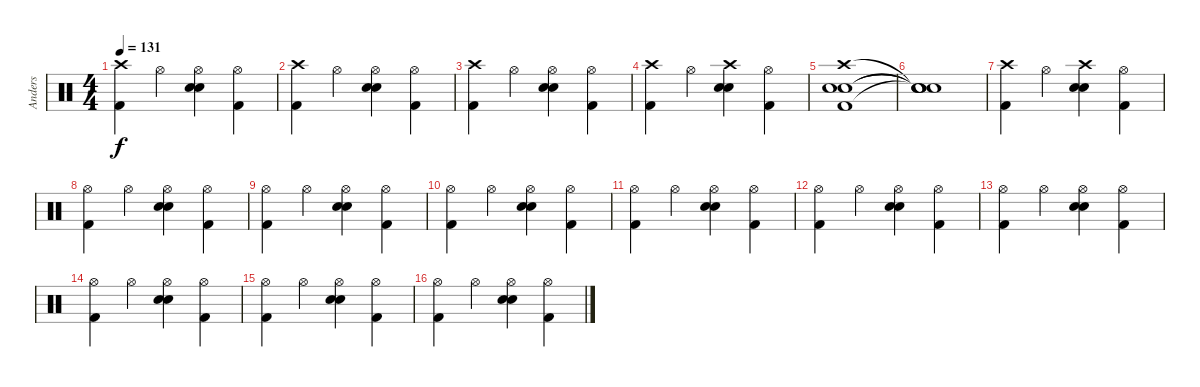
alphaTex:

\track ("Anders" "Anders") {instrument percussion}
\staff {score}
\articulation defaults
\ts (4 4)
\tempo 131
\clef neutral
\ks c
("Crash high (hit)" "Kick (hit) 2").4{dy f} "Hi-Hat (open)".4 ("Hi-Hat (open)" "Electric Snare (hit)" "Electric Snare (hit)").4 ("Hi-Hat (open)" "Kick (hit) 2").4 |
("Crash high (hit)" "Kick (hit) 2").4 "Hi-Hat (open)".4 ("Hi-Hat (open)" "Electric Snare (hit)" "Electric Snare (hit)").4 ("Hi-Hat (open)" "Kick (hit) 2").4 |
("Crash high (hit)" "Kick (hit) 2").4 "Hi-Hat (open)".4 ("Hi-Hat (open)" "Electric Snare (hit)" "Electric Snare (hit)").4 ("Hi-Hat (open)" "Kick (hit) 2").4 |
("Crash high (hit)" "Kick (hit) 2").4 "Hi-Hat (open)".4 ("Crash high (hit)" "Electric Snare (hit)" "Electric Snare (hit)").4 ("Hi-Hat (open)" "Kick (hit) 2").4 |
("Crash high (hit)" "Electric Snare (hit)" "Electric Snare (hit)" "Kick (hit) 2").1 |
("Snare (hit)"{t} "Snare (hit)"{t} "Snare (hit)"{t} "Snare (hit)"{t}).1 |
("Crash high (hit)" "Kick (hit) 2").4 "Hi-Hat (open)".4 ("Crash high (hit)" "Electric Snare (hit)" "Electric Snare (hit)").4 ("Hi-Hat (open)" "Kick (hit) 2").4 |
("Hi-Hat (open)" "Kick (hit) 2").4 "Hi-Hat (open)".4 ("Hi-Hat (open)" "Electric Snare (hit)" "Electric Snare (hit)").4 ("Hi-Hat (open)" "Kick (hit) 2").4 |
("Hi-Hat (open)" "Kick (hit) 2").4 "Hi-Hat (open)".4 ("Hi-Hat (open)" "Electric Snare (hit)" "Electric Snare (hit)").4 ("Hi-Hat (open)" "Kick (hit) 2").4 |
("Hi-Hat (open)" "Kick (hit) 2").4 "Hi-Hat (open)".4 ("Hi-Hat (open)" "Electric Snare (hit)" "Electric Snare (hit)").4 ("Hi-Hat (open)" "Kick (hit) 2").4 |
("Hi-Hat (open)" "Kick (hit) 2").4 "Hi-Hat (open)".4 ("Hi-Hat (open)" "Electric Snare (hit)" "Electric Snare (hit)").4 ("Hi-Hat (open)" "Kick (hit) 2").4 |
("Hi-Hat (open)" "Kick (hit) 2").4 "Hi-Hat (open)".4 ("Hi-Hat (open)" "Electric Snare (hit)" "Electric Snare (hit)").4 ("Hi-Hat (open)" "Kick (hit) 2").4 |
("Hi-Hat (open)" "Kick (hit) 2").4 "Hi-Hat (open)".4 ("Hi-Hat (open)" "Electric Snare (hit)" "Electric Snare (hit)").4 ("Hi-Hat (open)" "Kick (hit) 2").4 |
("Hi-Hat (open)" "Kick (hit) 2").4 "Hi-Hat (open)".4 ("Hi-Hat (open)" "Electric Snare (hit)" "Electric Snare (hit)").4 ("Hi-Hat (open)" "Kick (hit) 2").4 |
("Hi-Hat (open)" "Kick (hit) 2").4 "Hi-Hat (open)".4 ("Hi-Hat (open)" "Electric Snare (hit)" "Electric Snare (hit)").4 ("Hi-Hat (open)" "Kick (hit) 2").4 |
("Hi-Hat (open)" "Kick (hit) 2").4 "Hi-Hat (open)".4 ("Hi-Hat (open)" "Electric Snare (hit)" "Electric Snare (hit)").4 ("Hi-Hat (open)" "Kick (hit) 2").4
